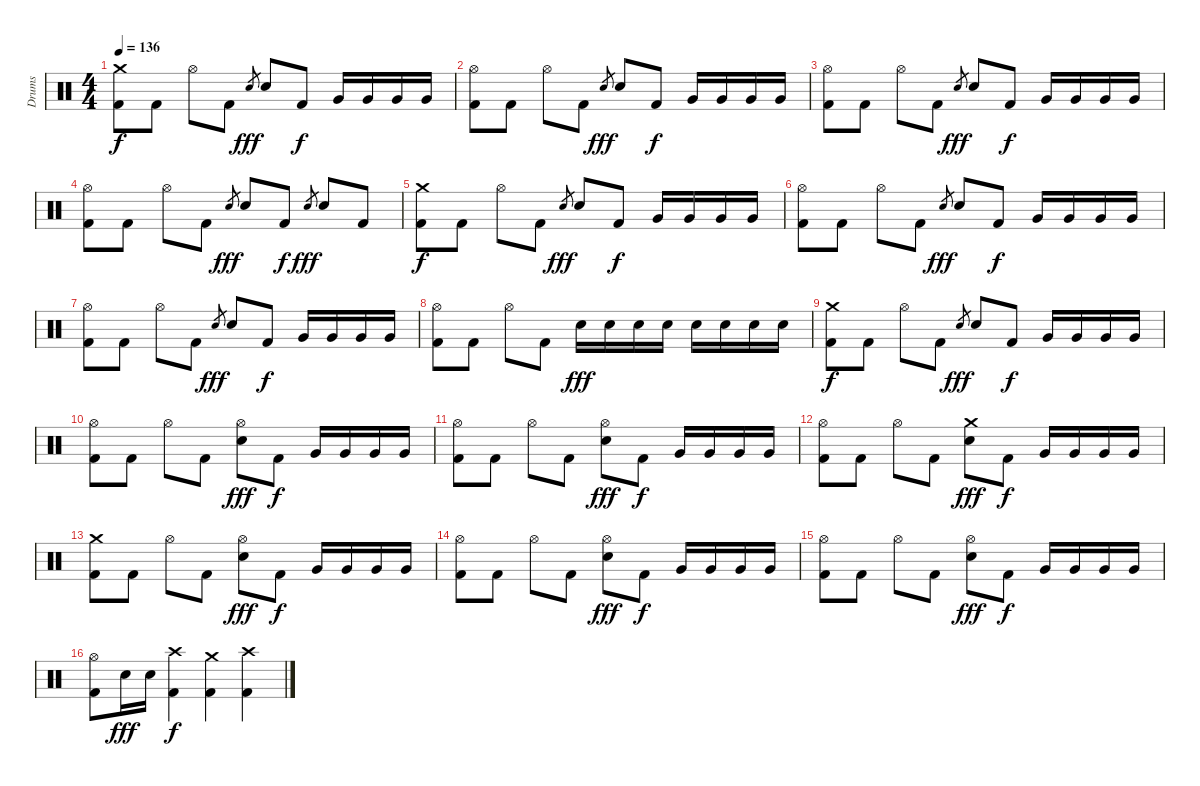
\track ("Drums" "Drums") {instrument percussion}
\staff {score}
\articulation defaults
\ts (4 4)
\tempo 136
\clef neutral
\ks c
("Crash medium (hit)" "Kick (hit) 2").8{dy f} "Kick (hit) 2".8 "Hi-Hat (open)".8 "Kick (hit) 2".8 "Electric Snare (hit)".8{gr dy fff} "Electric Snare (hit)".8 "Kick (hit) 2".8{dy f} "Very Low Tom (hit)".16 "Very Low Tom (hit)".16 "Very Low Tom (hit)".16 "Very Low Tom (hit)".16 |
("Hi-Hat (open)" "Kick (hit) 2").8 "Kick (hit) 2".8 "Hi-Hat (open)".8 "Kick (hit) 2".8 "Electric Snare (hit)".8{gr dy fff} "Electric Snare (hit)".8 "Kick (hit) 2".8{dy f} "Very Low Tom (hit)".16 "Very Low Tom (hit)".16 "Very Low Tom (hit)".16 "Very Low Tom (hit)".16 |
("Hi-Hat (open)" "Kick (hit) 2").8 "Kick (hit) 2".8 "Hi-Hat (open)".8 "Kick (hit) 2".8 "Electric Snare (hit)".8{gr dy fff} "Electric Snare (hit)".8 "Kick (hit) 2".8{dy f} "Very Low Tom (hit)".16 "Very Low Tom (hit)".16 "Very Low Tom (hit)".16 "Very Low Tom (hit)".16 |
("Hi-Hat (open)" "Kick (hit) 2").8 "Kick (hit) 2".8 "Hi-Hat (open)".8 "Kick (hit) 2".8 "Electric Snare (hit)".8{gr dy fff} "Electric Snare (hit)".8 "Kick (hit) 2".8{dy f} "Electric Snare (hit)".8{gr dy fff} "Electric Snare (hit)".8 "Kick (hit) 2".8 |
("Crash medium (hit)" "Kick (hit) 2").8{dy f} "Kick (hit) 2".8 "Hi-Hat (open)".8 "Kick (hit) 2".8 "Electric Snare (hit)".8{gr dy fff} "Electric Snare (hit)".8 "Kick (hit) 2".8{dy f} "Very Low Tom (hit)".16 "Very Low Tom (hit)".16 "Very Low Tom (hit)".16 "Very Low Tom (hit)".16 |
("Hi-Hat (open)" "Kick (hit) 2").8 "Kick (hit) 2".8 "Hi-Hat (open)".8 "Kick (hit) 2".8 "Electric Snare (hit)".8{gr dy fff} "Electric Snare (hit)".8 "Kick (hit) 2".8{dy f} "Very Low Tom (hit)".16 "Very Low Tom (hit)".16 "Very Low Tom (hit)".16 "Very Low Tom (hit)".16 |
("Hi-Hat (open)" "Kick (hit) 2").8 "Kick (hit) 2".8 "Hi-Hat (open)".8 "Kick (hit) 2".8 "Electric Snare (hit)".8{gr dy fff} "Electric Snare (hit)".8 "Kick (hit) 2".8{dy f} "Very Low Tom (hit)".16 "Very Low Tom (hit)".16 "Very Low Tom (hit)".16 "Very Low Tom (hit)".16 |
("Hi-Hat (open)" "Kick (hit) 2").8 "Kick (hit) 2".8 "Hi-Hat (open)".8 "Kick (hit) 2".8 "Electric Snare (hit)".16{dy fff} "Electric Snare (hit)".16 "Electric Snare (hit)".16 "Electric Snare (hit)".16 "Electric Snare (hit)".16 "Electric Snare (hit)".16 "Electric Snare (hit)".16 "Electric Snare (hit)".16 |
("Crash medium (hit)" "Kick (hit) 2").8{dy f} "Kick (hit) 2".8 "Hi-Hat (open)".8 "Kick (hit) 2".8 "Electric Snare (hit)".8{gr dy fff} "Electric Snare (hit)".8 "Kick (hit) 2".8{dy f} "Very Low Tom (hit)".16 "Very Low Tom (hit)".16 "Very Low Tom (hit)".16 "Very Low Tom (hit)".16 |
("Hi-Hat (open)" "Kick (hit) 2").8 "Kick (hit) 2".8 "Hi-Hat (open)".8 "Kick (hit) 2".8 ("Hi-Hat (open)" "Electric Snare (hit)").8{dy fff} "Kick (hit) 2".8{dy f} "Very Low Tom (hit)".16 "Very Low Tom (hit)".16 "Very Low Tom (hit)".16 "Very Low Tom (hit)".16 |
("Hi-Hat (open)" "Kick (hit) 2").8 "Kick (hit) 2".8 "Hi-Hat (open)".8 "Kick (hit) 2".8 ("Hi-Hat (open)" "Electric Snare (hit)").8{dy fff} "Kick (hit) 2".8{dy f} "Very Low Tom (hit)".16 "Very Low Tom (hit)".16 "Very Low Tom (hit)".16 "Very Low Tom (hit)".16 |
("Hi-Hat (open)" "Kick (hit) 2").8 "Kick (hit) 2".8 "Hi-Hat (open)".8 "Kick (hit) 2".8 ("Crash medium (hit)" "Electric Snare (hit)").8{dy fff} "Kick (hit) 2".8{dy f} "Very Low Tom (hit)".16 "Very Low Tom (hit)".16 "Very Low Tom (hit)".16 "Very Low Tom (hit)".16 |
("Crash medium (hit)" "Kick (hit) 2").8 "Kick (hit) 2".8 "Hi-Hat (open)".8 "Kick (hit) 2".8 ("Hi-Hat (open)" "Electric Snare (hit)").8{dy fff} "Kick (hit) 2".8{dy f} "Very Low Tom (hit)".16 "Very Low Tom (hit)".16 "Very Low Tom (hit)".16 "Very Low Tom (hit)".16 |
("Hi-Hat (open)" "Kick (hit) 2").8 "Kick (hit) 2".8 "Hi-Hat (open)".8 "Kick (hit) 2".8 ("Hi-Hat (open)" "Electric Snare (hit)").8{dy fff} "Kick (hit) 2".8{dy f} "Very Low Tom (hit)".16 "Very Low Tom (hit)".16 "Very Low Tom (hit)".16 "Very Low Tom (hit)".16 |
("Hi-Hat (open)" "Kick (hit) 2").8 "Kick (hit) 2".8 "Hi-Hat (open)".8 "Kick (hit) 2".8 ("Hi-Hat (open)" "Electric Snare (hit)").8{dy fff} "Kick (hit) 2".8{dy f} "Very Low Tom (hit)".16 "Very Low Tom (hit)".16 "Very Low Tom (hit)".16 "Very Low Tom (hit)".16 |
("Hi-Hat (open)" "Kick (hit) 2").8 "Electric Snare (hit)".16{dy fff} "Electric Snare (hit)".16 ("Crash high (hit)" "Kick (hit) 2").4{dy f} ("Crash medium (hit)" "Kick (hit) 2").4 ("Crash high (hit)" "Kick (hit) 2").4
